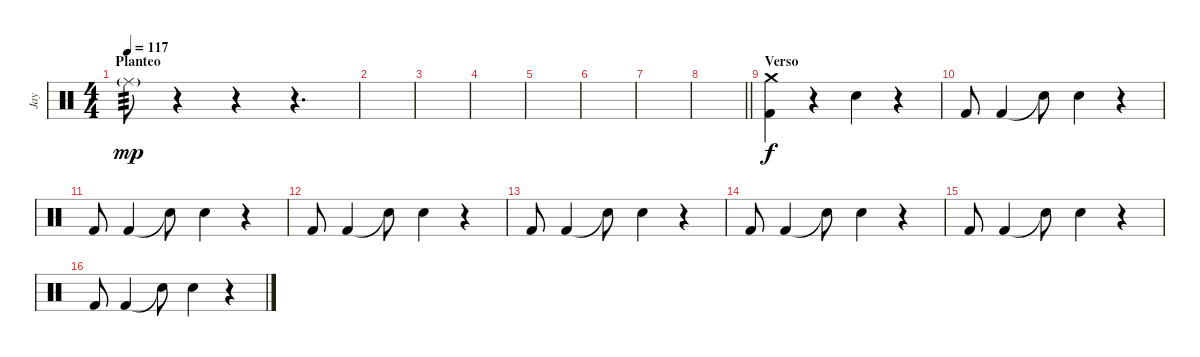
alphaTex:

\track ("Jay" "Jay") {instrument percussion}
\staff {score}
\articulation defaults
\ts (4 4)
\section ("" "Planteo")
\tempo 117
\clef neutral
\ks c "Ride (middle)"{g}.8{tp 3 dy mp}
r.4 r.4 r.4{d} |
|
|
|
|
|
|
\barLineRight lightlight
|
\section ("" "Verso")
("Crash medium (hit)" "Kick (hit) 2").4{dy f} r.4 "Snare (hit) 2".4 r.4 |
"Kick (hit) 2".8 "Kick (hit) 2".4 "Snare (hit) 2"{t}.8 "Snare (hit) 2".4 r.4 |
"Kick (hit) 2".8 "Kick (hit) 2".4 "Snare (hit) 2"{t}.8 "Snare (hit) 2".4 r.4 |
"Kick (hit) 2".8 "Kick (hit) 2".4 "Snare (hit) 2"{t}.8 "Snare (hit) 2".4 r.4 |
"Kick (hit) 2".8 "Kick (hit) 2".4 "Snare (hit) 2"{t}.8 "Snare (hit) 2".4 r.4 |
"Kick (hit) 2".8 "Kick (hit) 2".4 "Snare (hit) 2"{t}.8 "Snare (hit) 2".4 r.4 |
"Kick (hit) 2".8 "Kick (hit) 2".4 "Snare (hit) 2"{t}.8 "Snare (hit) 2".4 r.4 |
"Kick (hit) 2".8 "Kick (hit) 2".4 "Snare (hit) 2"{t}.8 "Snare (hit) 2".4 r.4
